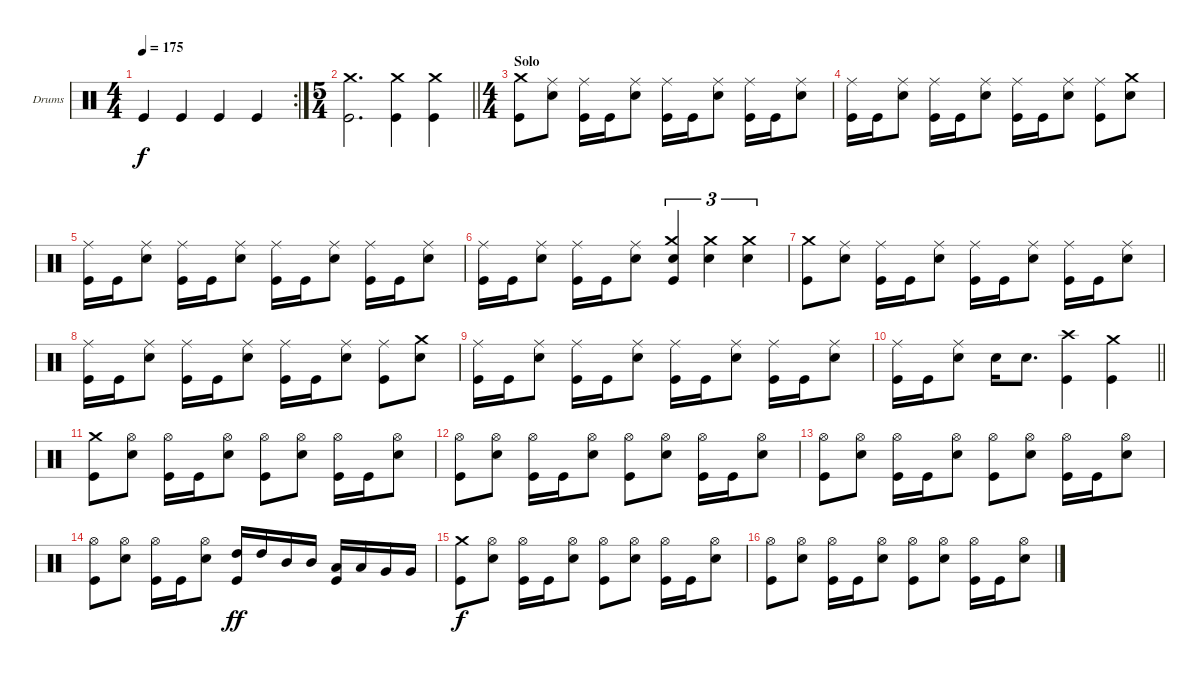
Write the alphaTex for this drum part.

\bracketExtendMode groupsimilarinstruments
\firstSystemTrackNameOrientation horizontal
\otherSystemsTrackNameOrientation horizontal
\track ("Drums" "Drums") {instrument percussion}
\staff {score}
\articulation defaults
\rc 2
\ts (4 4)
\tempo 175
\clef neutral
\ks c "Kick (hit)".4{dy f} "Kick (hit)".4 "Kick (hit)".4 "Kick (hit)".4
|
\ts (5 4)
\beaming (8 6 4)
\barLineRight lightlight
("Kick (hit)" "Crash medium (hit)").2{d} ("Kick (hit)" "Crash medium (hit)").4 ("Kick (hit)" "Crash medium (hit)").4 |
\ts (4 4)
\beaming (8 2 2 2 2)
\section ("" "Solo")
("Kick (hit)" "Crash medium (hit)").8 ("Snare (hit) 2" "Ride (middle)").8 ("Kick (hit)" "Ride (middle)").16 "Kick (hit)".16 ("Snare (hit) 2" "Ride (middle)").8 ("Kick (hit)" "Ride (middle)").16 "Kick (hit)".16 ("Snare (hit) 2" "Ride (middle)").8 ("Kick (hit)" "Ride (middle)").16 "Kick (hit)".16 ("Snare (hit) 2" "Ride (middle)").8 |
("Kick (hit)" "Ride (middle)").16 "Kick (hit)".16 ("Snare (hit) 2" "Ride (middle)").8 ("Kick (hit)" "Ride (middle)").16 "Kick (hit)".16 ("Snare (hit) 2" "Ride (middle)").8 ("Kick (hit)" "Ride (middle)").16 "Kick (hit)".16 ("Snare (hit) 2" "Ride (middle)").8 ("Kick (hit)" "Ride (middle)").8 ("Snare (hit) 2" "Crash medium (hit)").8 |
("Kick (hit)" "Ride (middle)").16 "Kick (hit)".16 ("Snare (hit) 2" "Ride (middle)").8 ("Kick (hit)" "Ride (middle)").16 "Kick (hit)".16 ("Snare (hit) 2" "Ride (middle)").8 ("Kick (hit)" "Ride (middle)").16 "Kick (hit)".16 ("Snare (hit) 2" "Ride (middle)").8 ("Kick (hit)" "Ride (middle)").16 "Kick (hit)".16 ("Snare (hit) 2" "Ride (middle)").8 |
("Kick (hit)" "Ride (middle)").16 "Kick (hit)".16 ("Snare (hit) 2" "Ride (middle)").8 ("Kick (hit)" "Ride (middle)").16 "Kick (hit)".16 ("Snare (hit) 2" "Ride (middle)").8 ("Snare (hit) 2" "Crash medium (hit)" "Kick (hit)").4{tu (3 2)} ("Snare (hit) 2" "Crash medium (hit)").4{tu (3 2)} ("Snare (hit) 2" "Crash medium (hit)").4{tu (3 2)} |
("Kick (hit)" "Crash medium (hit)").8 ("Snare (hit) 2" "Ride (middle)").8 ("Kick (hit)" "Ride (middle)").16 "Kick (hit)".16 ("Snare (hit) 2" "Ride (middle)").8 ("Kick (hit)" "Ride (middle)").16 "Kick (hit)".16 ("Snare (hit) 2" "Ride (middle)").8 ("Kick (hit)" "Ride (middle)").16 "Kick (hit)".16 ("Snare (hit) 2" "Ride (middle)").8 |
("Kick (hit)" "Ride (middle)").16 "Kick (hit)".16 ("Snare (hit) 2" "Ride (middle)").8 ("Kick (hit)" "Ride (middle)").16 "Kick (hit)".16 ("Snare (hit) 2" "Ride (middle)").8 ("Kick (hit)" "Ride (middle)").16 "Kick (hit)".16 ("Snare (hit) 2" "Ride (middle)").8 ("Kick (hit)" "Ride (middle)").8 ("Snare (hit) 2" "Crash medium (hit)").8 |
("Kick (hit)" "Ride (middle)").16 "Kick (hit)".16 ("Snare (hit) 2" "Ride (middle)").8 ("Kick (hit)" "Ride (middle)").16 "Kick (hit)".16 ("Snare (hit) 2" "Ride (middle)").8 ("Kick (hit)" "Ride (middle)").16 "Kick (hit)".16 ("Snare (hit) 2" "Ride (middle)").8 ("Kick (hit)" "Ride (middle)").16 "Kick (hit)".16 ("Snare (hit) 2" "Ride (middle)").8 |
\barLineRight lightlight
("Kick (hit)" "Ride (middle)").16 "Kick (hit)".16 ("Snare (hit) 2" "Ride (middle)").8 "Snare (hit) 2".16 "Snare (hit) 2".8{d} ("Kick (hit)" "Crash high (hit)").4 ("Kick (hit)" "Crash medium (hit)").4 |
("Crash medium (hit)" "Kick (hit)").8 ("Hi-Hat (open)" "Snare (hit) 2").8 ("Hi-Hat (open)" "Kick (hit)").16 "Kick (hit)".16 ("Hi-Hat (open)" "Snare (hit) 2").8 ("Hi-Hat (open)" "Kick (hit)").8 ("Hi-Hat (open)" "Snare (hit) 2").8 ("Hi-Hat (open)" "Kick (hit)").16 "Kick (hit)".16 ("Hi-Hat (open)" "Snare (hit) 2").8 |
("Hi-Hat (open)" "Kick (hit)").8 ("Hi-Hat (open)" "Snare (hit) 2").8 ("Hi-Hat (open)" "Kick (hit)").16 "Kick (hit)".16 ("Hi-Hat (open)" "Snare (hit) 2").8 ("Hi-Hat (open)" "Kick (hit)").8 ("Hi-Hat (open)" "Snare (hit) 2").8 ("Hi-Hat (open)" "Kick (hit)").16 "Kick (hit)".16 ("Hi-Hat (open)" "Snare (hit) 2").8 |
("Hi-Hat (open)" "Kick (hit)").8 ("Hi-Hat (open)" "Snare (hit) 2").8 ("Hi-Hat (open)" "Kick (hit)").16 "Kick (hit)".16 ("Hi-Hat (open)" "Snare (hit) 2").8 ("Hi-Hat (open)" "Kick (hit)").8 ("Hi-Hat (open)" "Snare (hit) 2").8 ("Hi-Hat (open)" "Kick (hit)").16 "Kick (hit)".16 ("Hi-Hat (open)" "Snare (hit) 2").8 |
("Hi-Hat (open)" "Kick (hit)").8 ("Hi-Hat (open)" "Snare (hit) 2").8 ("Hi-Hat (open)" "Kick (hit)").16 "Kick (hit)".16 ("Hi-Hat (open)" "Snare (hit) 2").8 ("Kick (hit)" "High Tom (hit)").16{dy ff} "High Tom (hit)".16 "Mid Tom (hit)".16 "Mid Tom (hit)".16 ("Low Tom (hit)" "Kick (hit)").16 "Low Tom (hit)".16 "Very Low Tom (hit)".16 "Very Low Tom (hit)".16 |
("Crash medium (hit)" "Kick (hit)").8{dy f} ("Hi-Hat (open)" "Snare (hit) 2").8 ("Hi-Hat (open)" "Kick (hit)").16 "Kick (hit)".16 ("Hi-Hat (open)" "Snare (hit) 2").8 ("Hi-Hat (open)" "Kick (hit)").8 ("Hi-Hat (open)" "Snare (hit) 2").8 ("Hi-Hat (open)" "Kick (hit)").16 "Kick (hit)".16 ("Hi-Hat (open)" "Snare (hit) 2").8 |
("Hi-Hat (open)" "Kick (hit)").8 ("Hi-Hat (open)" "Snare (hit) 2").8 ("Hi-Hat (open)" "Kick (hit)").16 "Kick (hit)".16 ("Hi-Hat (open)" "Snare (hit) 2").8 ("Hi-Hat (open)" "Kick (hit)").8 ("Hi-Hat (open)" "Snare (hit) 2").8 ("Hi-Hat (open)" "Kick (hit)").16 "Kick (hit)".16 ("Hi-Hat (open)" "Snare (hit) 2").8
